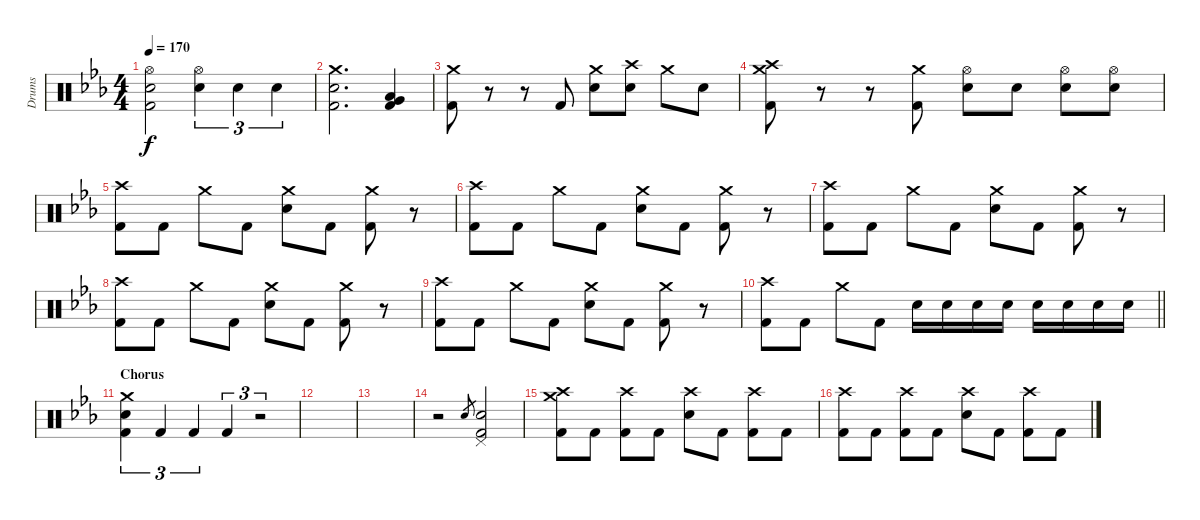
\track ("Drums" "Drums") {instrument percussion}
\staff {score}
\articulation defaults
\ts (4 4)
\tempo 170
\clef neutral
\ks cminor
("Hi-Hat (open)" "Electric Snare (hit)" "Kick (hit) 2").2{dy f} ("Hi-Hat (open)" "Electric Snare (hit)").4{tu (3 2)} "Electric Snare (hit)".4{tu (3 2)} "Electric Snare (hit)".4{tu (3 2)} |
("Crash medium (hit)" "Electric Snare (hit)" "Kick (hit) 2").2{d} ("Very Low Tom (hit)" "Low Floor Tom (hit)" "Kick (hit) 2").4 |
("Crash medium (hit)" "Kick (hit) 2").8 r.8 r.8 "Kick (hit) 2".8 ("Crash medium (hit)" "Electric Snare (hit)").8 ("Crash high (hit)" "Electric Snare (hit)").8 "Crash medium (hit)".8 "Electric Snare (hit)".8 |
("Crash medium (hit)" "Crash high (hit)" "Kick (hit) 2").8 r.8 r.8 ("Crash medium (hit)" "Kick (hit) 2").8 ("Hi-Hat (open)" "Electric Snare (hit)").8 "Electric Snare (hit)".8 ("Hi-Hat (open)" "Electric Snare (hit)").8 ("Hi-Hat (open)" "Electric Snare (hit)").8 |
("Crash high (hit)" "Kick (hit) 2").8 "Kick (hit) 2".8 "Crash medium (hit)".8 "Kick (hit) 2".8 ("Crash medium (hit)" "Electric Snare (hit)").8 "Kick (hit) 2".8 ("Crash medium (hit)" "Kick (hit) 2").8 r.8 |
("Crash high (hit)" "Kick (hit) 2").8 "Kick (hit) 2".8 "Crash medium (hit)".8 "Kick (hit) 2".8 ("Crash medium (hit)" "Electric Snare (hit)").8 "Kick (hit) 2".8 ("Crash medium (hit)" "Kick (hit) 2").8 r.8 |
("Crash high (hit)" "Kick (hit) 2").8 "Kick (hit) 2".8 "Crash medium (hit)".8 "Kick (hit) 2".8 ("Crash medium (hit)" "Electric Snare (hit)").8 "Kick (hit) 2".8 ("Crash medium (hit)" "Kick (hit) 2").8 r.8 |
("Crash high (hit)" "Kick (hit) 2").8 "Kick (hit) 2".8 "Crash medium (hit)".8 "Kick (hit) 2".8 ("Crash medium (hit)" "Electric Snare (hit)").8 "Kick (hit) 2".8 ("Crash medium (hit)" "Kick (hit) 2").8 r.8 |
("Crash high (hit)" "Kick (hit) 2").8 "Kick (hit) 2".8 "Crash medium (hit)".8 "Kick (hit) 2".8 ("Crash medium (hit)" "Electric Snare (hit)").8 "Kick (hit) 2".8 ("Crash medium (hit)" "Kick (hit) 2").8 r.8 |
\barLineRight lightlight
("Crash high (hit)" "Kick (hit) 2").8 "Kick (hit) 2".8 "Crash medium (hit)".8 "Kick (hit) 2".8 "Electric Snare (hit)".16 "Electric Snare (hit)".16 "Electric Snare (hit)".16 "Electric Snare (hit)".16 "Electric Snare (hit)".16 "Electric Snare (hit)".16 "Electric Snare (hit)".16 "Electric Snare (hit)".16 |
\section ("" "Chorus")
("Crash medium (hit)" "Electric Snare (hit)" "Kick (hit) 2").4{tu (3 2)} "Kick (hit) 2".4{tu (3 2)} "Kick (hit) 2".4{tu (3 2)} "Kick (hit) 2".4{tu (3 2)} r.2{tu (3 2)} |
|
|
r.2 "Electric Snare (hit)".8{gr} ("Pedal Hi-Hat (hit)" "Electric Snare (hit)" "Kick (hit) 2").2 |
("Crash high (hit)" "Crash medium (hit)" "Kick (hit) 2").8 "Kick (hit) 2".8 ("Crash high (hit)" "Kick (hit) 2").8 "Kick (hit) 2".8 ("Crash high (hit)" "Electric Snare (hit)").8 "Kick (hit) 2".8 ("Crash high (hit)" "Kick (hit) 2").8 "Kick (hit) 2".8 |
("Crash high (hit)" "Kick (hit) 2").8 "Kick (hit) 2".8 ("Crash high (hit)" "Kick (hit) 2").8 "Kick (hit) 2".8 ("Crash high (hit)" "Electric Snare (hit)").8 "Kick (hit) 2".8 ("Crash high (hit)" "Kick (hit) 2").8 "Kick (hit) 2".8
